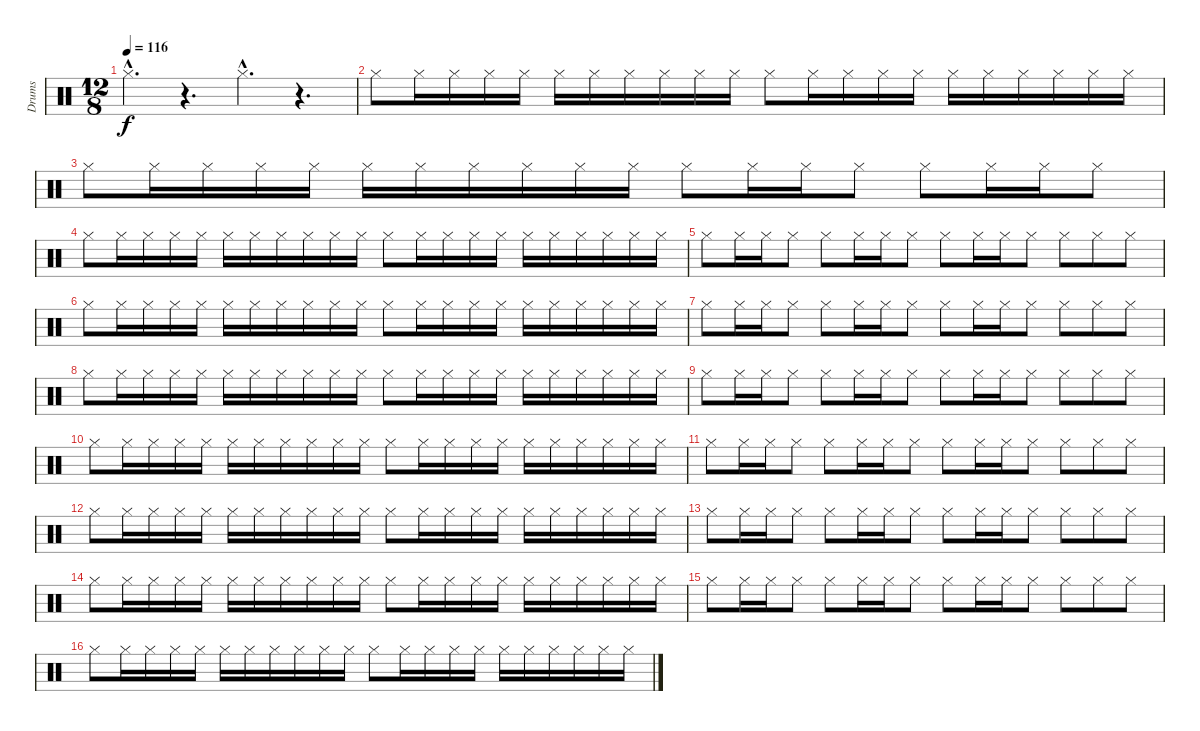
\track ("Drums" "Drums") {instrument percussion}
\staff {score}
\articulation defaults
\ts (12 8)
\tempo 116
\clef neutral
\ks c "Hi-Hat (closed)"{hac}.4{d dy f}
r.4{d} "Hi-Hat (closed)"{hac}.4{d} r.4{d} |
"Hi-Hat (closed)".8 "Hi-Hat (closed)".16 "Hi-Hat (closed)".16 "Hi-Hat (closed)".16 "Hi-Hat (closed)".16 "Hi-Hat (closed)".16 "Hi-Hat (closed)".16 "Hi-Hat (closed)".16 "Hi-Hat (closed)".16 "Hi-Hat (closed)".16 "Hi-Hat (closed)".16 "Hi-Hat (closed)".8 "Hi-Hat (closed)".16 "Hi-Hat (closed)".16 "Hi-Hat (closed)".16 "Hi-Hat (closed)".16 "Hi-Hat (closed)".16 "Hi-Hat (closed)".16 "Hi-Hat (closed)".16 "Hi-Hat (closed)".16 "Hi-Hat (closed)".16 "Hi-Hat (closed)".16 |
"Hi-Hat (closed)".8 "Hi-Hat (closed)".16 "Hi-Hat (closed)".16 "Hi-Hat (closed)".16 "Hi-Hat (closed)".16 "Hi-Hat (closed)".16 "Hi-Hat (closed)".16 "Hi-Hat (closed)".16 "Hi-Hat (closed)".16 "Hi-Hat (closed)".16 "Hi-Hat (closed)".16 "Hi-Hat (closed)".8 "Hi-Hat (closed)".16 "Hi-Hat (closed)".16 "Hi-Hat (closed)".8 "Hi-Hat (closed)".8 "Hi-Hat (closed)".16 "Hi-Hat (closed)".16 "Hi-Hat (closed)".8 |
"Hi-Hat (closed)".8 "Hi-Hat (closed)".16 "Hi-Hat (closed)".16 "Hi-Hat (closed)".16 "Hi-Hat (closed)".16 "Hi-Hat (closed)".16 "Hi-Hat (closed)".16 "Hi-Hat (closed)".16 "Hi-Hat (closed)".16 "Hi-Hat (closed)".16 "Hi-Hat (closed)".16 "Hi-Hat (closed)".8 "Hi-Hat (closed)".16 "Hi-Hat (closed)".16 "Hi-Hat (closed)".16 "Hi-Hat (closed)".16 "Hi-Hat (closed)".16 "Hi-Hat (closed)".16 "Hi-Hat (closed)".16 "Hi-Hat (closed)".16 "Hi-Hat (closed)".16 "Hi-Hat (closed)".16 |
"Hi-Hat (closed)".8 "Hi-Hat (closed)".16 "Hi-Hat (closed)".16 "Hi-Hat (closed)".8 "Hi-Hat (closed)".8 "Hi-Hat (closed)".16 "Hi-Hat (closed)".16 "Hi-Hat (closed)".8 "Hi-Hat (closed)".8 "Hi-Hat (closed)".16 "Hi-Hat (closed)".16 "Hi-Hat (closed)".8 "Hi-Hat (closed)".8 "Hi-Hat (closed)".8 "Hi-Hat (closed)".8 |
"Hi-Hat (closed)".8 "Hi-Hat (closed)".16 "Hi-Hat (closed)".16 "Hi-Hat (closed)".16 "Hi-Hat (closed)".16 "Hi-Hat (closed)".16 "Hi-Hat (closed)".16 "Hi-Hat (closed)".16 "Hi-Hat (closed)".16 "Hi-Hat (closed)".16 "Hi-Hat (closed)".16 "Hi-Hat (closed)".8 "Hi-Hat (closed)".16 "Hi-Hat (closed)".16 "Hi-Hat (closed)".16 "Hi-Hat (closed)".16 "Hi-Hat (closed)".16 "Hi-Hat (closed)".16 "Hi-Hat (closed)".16 "Hi-Hat (closed)".16 "Hi-Hat (closed)".16 "Hi-Hat (closed)".16 |
"Hi-Hat (closed)".8 "Hi-Hat (closed)".16 "Hi-Hat (closed)".16 "Hi-Hat (closed)".8 "Hi-Hat (closed)".8 "Hi-Hat (closed)".16 "Hi-Hat (closed)".16 "Hi-Hat (closed)".8 "Hi-Hat (closed)".8 "Hi-Hat (closed)".16 "Hi-Hat (closed)".16 "Hi-Hat (closed)".8 "Hi-Hat (closed)".8 "Hi-Hat (closed)".8 "Hi-Hat (closed)".8 |
"Hi-Hat (closed)".8 "Hi-Hat (closed)".16 "Hi-Hat (closed)".16 "Hi-Hat (closed)".16 "Hi-Hat (closed)".16 "Hi-Hat (closed)".16 "Hi-Hat (closed)".16 "Hi-Hat (closed)".16 "Hi-Hat (closed)".16 "Hi-Hat (closed)".16 "Hi-Hat (closed)".16 "Hi-Hat (closed)".8 "Hi-Hat (closed)".16 "Hi-Hat (closed)".16 "Hi-Hat (closed)".16 "Hi-Hat (closed)".16 "Hi-Hat (closed)".16 "Hi-Hat (closed)".16 "Hi-Hat (closed)".16 "Hi-Hat (closed)".16 "Hi-Hat (closed)".16 "Hi-Hat (closed)".16 |
"Hi-Hat (closed)".8 "Hi-Hat (closed)".16 "Hi-Hat (closed)".16 "Hi-Hat (closed)".8 "Hi-Hat (closed)".8 "Hi-Hat (closed)".16 "Hi-Hat (closed)".16 "Hi-Hat (closed)".8 "Hi-Hat (closed)".8 "Hi-Hat (closed)".16 "Hi-Hat (closed)".16 "Hi-Hat (closed)".8 "Hi-Hat (closed)".8 "Hi-Hat (closed)".8 "Hi-Hat (closed)".8 |
"Hi-Hat (closed)".8 "Hi-Hat (closed)".16 "Hi-Hat (closed)".16 "Hi-Hat (closed)".16 "Hi-Hat (closed)".16 "Hi-Hat (closed)".16 "Hi-Hat (closed)".16 "Hi-Hat (closed)".16 "Hi-Hat (closed)".16 "Hi-Hat (closed)".16 "Hi-Hat (closed)".16 "Hi-Hat (closed)".8 "Hi-Hat (closed)".16 "Hi-Hat (closed)".16 "Hi-Hat (closed)".16 "Hi-Hat (closed)".16 "Hi-Hat (closed)".16 "Hi-Hat (closed)".16 "Hi-Hat (closed)".16 "Hi-Hat (closed)".16 "Hi-Hat (closed)".16 "Hi-Hat (closed)".16 |
"Hi-Hat (closed)".8 "Hi-Hat (closed)".16 "Hi-Hat (closed)".16 "Hi-Hat (closed)".8 "Hi-Hat (closed)".8 "Hi-Hat (closed)".16 "Hi-Hat (closed)".16 "Hi-Hat (closed)".8 "Hi-Hat (closed)".8 "Hi-Hat (closed)".16 "Hi-Hat (closed)".16 "Hi-Hat (closed)".8 "Hi-Hat (closed)".8 "Hi-Hat (closed)".8 "Hi-Hat (closed)".8 |
"Hi-Hat (closed)".8 "Hi-Hat (closed)".16 "Hi-Hat (closed)".16 "Hi-Hat (closed)".16 "Hi-Hat (closed)".16 "Hi-Hat (closed)".16 "Hi-Hat (closed)".16 "Hi-Hat (closed)".16 "Hi-Hat (closed)".16 "Hi-Hat (closed)".16 "Hi-Hat (closed)".16 "Hi-Hat (closed)".8 "Hi-Hat (closed)".16 "Hi-Hat (closed)".16 "Hi-Hat (closed)".16 "Hi-Hat (closed)".16 "Hi-Hat (closed)".16 "Hi-Hat (closed)".16 "Hi-Hat (closed)".16 "Hi-Hat (closed)".16 "Hi-Hat (closed)".16 "Hi-Hat (closed)".16 |
"Hi-Hat (closed)".8 "Hi-Hat (closed)".16 "Hi-Hat (closed)".16 "Hi-Hat (closed)".8 "Hi-Hat (closed)".8 "Hi-Hat (closed)".16 "Hi-Hat (closed)".16 "Hi-Hat (closed)".8 "Hi-Hat (closed)".8 "Hi-Hat (closed)".16 "Hi-Hat (closed)".16 "Hi-Hat (closed)".8 "Hi-Hat (closed)".8 "Hi-Hat (closed)".8 "Hi-Hat (closed)".8 |
"Hi-Hat (closed)".8 "Hi-Hat (closed)".16 "Hi-Hat (closed)".16 "Hi-Hat (closed)".16 "Hi-Hat (closed)".16 "Hi-Hat (closed)".16 "Hi-Hat (closed)".16 "Hi-Hat (closed)".16 "Hi-Hat (closed)".16 "Hi-Hat (closed)".16 "Hi-Hat (closed)".16 "Hi-Hat (closed)".8 "Hi-Hat (closed)".16 "Hi-Hat (closed)".16 "Hi-Hat (closed)".16 "Hi-Hat (closed)".16 "Hi-Hat (closed)".16 "Hi-Hat (closed)".16 "Hi-Hat (closed)".16 "Hi-Hat (closed)".16 "Hi-Hat (closed)".16 "Hi-Hat (closed)".16 |
"Hi-Hat (closed)".8 "Hi-Hat (closed)".16 "Hi-Hat (closed)".16 "Hi-Hat (closed)".8 "Hi-Hat (closed)".8 "Hi-Hat (closed)".16 "Hi-Hat (closed)".16 "Hi-Hat (closed)".8 "Hi-Hat (closed)".8 "Hi-Hat (closed)".16 "Hi-Hat (closed)".16 "Hi-Hat (closed)".8 "Hi-Hat (closed)".8 "Hi-Hat (closed)".8 "Hi-Hat (closed)".8 |
"Hi-Hat (closed)".8 "Hi-Hat (closed)".16 "Hi-Hat (closed)".16 "Hi-Hat (closed)".16 "Hi-Hat (closed)".16 "Hi-Hat (closed)".16 "Hi-Hat (closed)".16 "Hi-Hat (closed)".16 "Hi-Hat (closed)".16 "Hi-Hat (closed)".16 "Hi-Hat (closed)".16 "Hi-Hat (closed)".8 "Hi-Hat (closed)".16 "Hi-Hat (closed)".16 "Hi-Hat (closed)".16 "Hi-Hat (closed)".16 "Hi-Hat (closed)".16 "Hi-Hat (closed)".16 "Hi-Hat (closed)".16 "Hi-Hat (closed)".16 "Hi-Hat (closed)".16 "Hi-Hat (closed)".16
